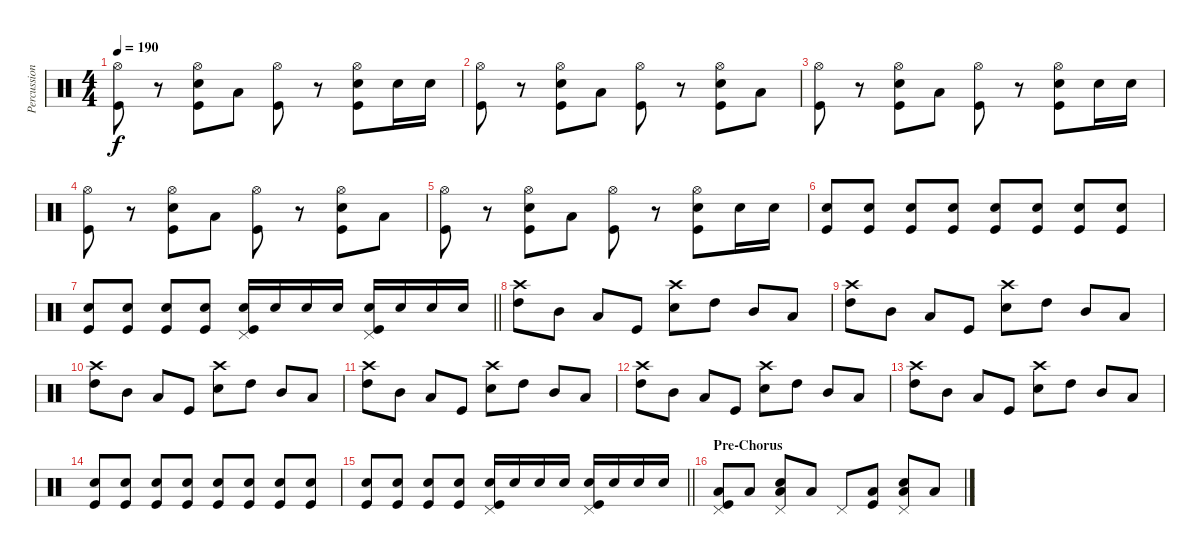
\track ("Percussion" "Percussion") {instrument percussion}
\staff {score}
\articulation defaults
\ts (4 4)
\tempo 190
\clef neutral
\ks c
("Hi-Hat (open)" "Kick (hit)").8{dy f} r.8 ("Snare (hit) 2" "Hi-Hat (open)" "Kick (hit)").8 "Low Tom (hit)".8 ("Hi-Hat (open)" "Kick (hit)").8 r.8 ("Snare (hit) 2" "Hi-Hat (open)" "Kick (hit)").8 "Snare (hit) 2".16 "Snare (hit) 2".16 |
("Hi-Hat (open)" "Kick (hit)").8 r.8 ("Snare (hit) 2" "Hi-Hat (open)" "Kick (hit)").8 "Low Tom (hit)".8 ("Hi-Hat (open)" "Kick (hit)").8 r.8 ("Snare (hit) 2" "Hi-Hat (open)" "Kick (hit)").8 "Low Tom (hit)".8 |
("Hi-Hat (open)" "Kick (hit)").8 r.8 ("Snare (hit) 2" "Hi-Hat (open)" "Kick (hit)").8 "Low Tom (hit)".8 ("Hi-Hat (open)" "Kick (hit)").8 r.8 ("Snare (hit) 2" "Hi-Hat (open)" "Kick (hit)").8 "Snare (hit) 2".16 "Snare (hit) 2".16 |
("Hi-Hat (open)" "Kick (hit)").8 r.8 ("Snare (hit) 2" "Hi-Hat (open)" "Kick (hit)").8 "Low Tom (hit)".8 ("Hi-Hat (open)" "Kick (hit)").8 r.8 ("Snare (hit) 2" "Hi-Hat (open)" "Kick (hit)").8 "Low Tom (hit)".8 |
("Hi-Hat (open)" "Kick (hit)").8 r.8 ("Snare (hit) 2" "Hi-Hat (open)" "Kick (hit)").8 "Low Tom (hit)".8 ("Hi-Hat (open)" "Kick (hit)").8 r.8 ("Snare (hit) 2" "Hi-Hat (open)" "Kick (hit)").8 "Snare (hit) 2".16 "Snare (hit) 2".16 |
("Snare (hit) 2" "Kick (hit)").8 ("Snare (hit) 2" "Kick (hit)").8 ("Snare (hit) 2" "Kick (hit)").8 ("Snare (hit) 2" "Kick (hit)").8 ("Snare (hit) 2" "Kick (hit)").8 ("Snare (hit) 2" "Kick (hit)").8 ("Snare (hit) 2" "Kick (hit)").8 ("Snare (hit) 2" "Kick (hit)").8 |
\barLineRight lightlight
("Snare (hit) 2" "Kick (hit)").8 ("Snare (hit) 2" "Kick (hit)").8 ("Snare (hit) 2" "Kick (hit)").8 ("Snare (hit) 2" "Kick (hit)").8 ("Pedal Hi-Hat (hit)" "Snare (hit) 2" "Kick (hit)").16 "Snare (hit) 2".16 "Snare (hit) 2".16 "Snare (hit) 2".16 ("Pedal Hi-Hat (hit)" "Snare (hit) 2" "Kick (hit)").16 "Snare (hit) 2".16 "Snare (hit) 2".16 "Snare (hit) 2".16 |
("Crash high (hit)" "High Tom (hit)").8 "Mid Tom (hit)".8 "Low Tom (hit)".8 "Kick (hit)".8 ("Crash high (hit)" "Snare (hit) 2").8 "High Tom (hit)".8 "Mid Tom (hit)".8 "Low Tom (hit)".8 |
("Crash high (hit)" "High Tom (hit)").8 "Mid Tom (hit)".8 "Low Tom (hit)".8 "Kick (hit)".8 ("Crash high (hit)" "Snare (hit) 2").8 "High Tom (hit)".8 "Mid Tom (hit)".8 "Low Tom (hit)".8 |
("Crash high (hit)" "High Tom (hit)").8 "Mid Tom (hit)".8 "Low Tom (hit)".8 "Kick (hit)".8 ("Crash high (hit)" "Snare (hit) 2").8 "High Tom (hit)".8 "Mid Tom (hit)".8 "Low Tom (hit)".8 |
("Crash high (hit)" "High Tom (hit)").8 "Mid Tom (hit)".8 "Low Tom (hit)".8 "Kick (hit)".8 ("Crash high (hit)" "Snare (hit) 2").8 "High Tom (hit)".8 "Mid Tom (hit)".8 "Low Tom (hit)".8 |
("Crash high (hit)" "High Tom (hit)").8 "Mid Tom (hit)".8 "Low Tom (hit)".8 "Kick (hit)".8 ("Crash high (hit)" "Snare (hit) 2").8 "High Tom (hit)".8 "Mid Tom (hit)".8 "Low Tom (hit)".8 |
("Crash high (hit)" "High Tom (hit)").8 "Mid Tom (hit)".8 "Low Tom (hit)".8 "Kick (hit)".8 ("Crash high (hit)" "Snare (hit) 2").8 "High Tom (hit)".8 "Mid Tom (hit)".8 "Low Tom (hit)".8 |
("Snare (hit) 2" "Kick (hit)").8 ("Snare (hit) 2" "Kick (hit)").8 ("Snare (hit) 2" "Kick (hit)").8 ("Snare (hit) 2" "Kick (hit)").8 ("Snare (hit) 2" "Kick (hit)").8 ("Snare (hit) 2" "Kick (hit)").8 ("Snare (hit) 2" "Kick (hit)").8 ("Snare (hit) 2" "Kick (hit)").8 |
\barLineRight lightlight
("Snare (hit) 2" "Kick (hit)").8 ("Snare (hit) 2" "Kick (hit)").8 ("Snare (hit) 2" "Kick (hit)").8 ("Snare (hit) 2" "Kick (hit)").8 ("Pedal Hi-Hat (hit)" "Snare (hit) 2" "Kick (hit)").16 "Snare (hit) 2".16 "Snare (hit) 2".16 "Snare (hit) 2".16 ("Pedal Hi-Hat (hit)" "Snare (hit) 2" "Kick (hit)").16 "Snare (hit) 2".16 "Snare (hit) 2".16 "Snare (hit) 2".16 |
\section ("" "Pre-Chorus")
("Pedal Hi-Hat (hit)" "Low Tom (hit)" "Kick (hit)").8 "Low Tom (hit)".8 ("Pedal Hi-Hat (hit)" "Snare (hit) 2" "Low Tom (hit)").8 "Low Tom (hit)".8 "Pedal Hi-Hat (hit)".8 ("Low Tom (hit)" "Kick (hit)").8 ("Pedal Hi-Hat (hit)" "Snare (hit) 2" "Low Tom (hit)").8 "Low Tom (hit)".8
